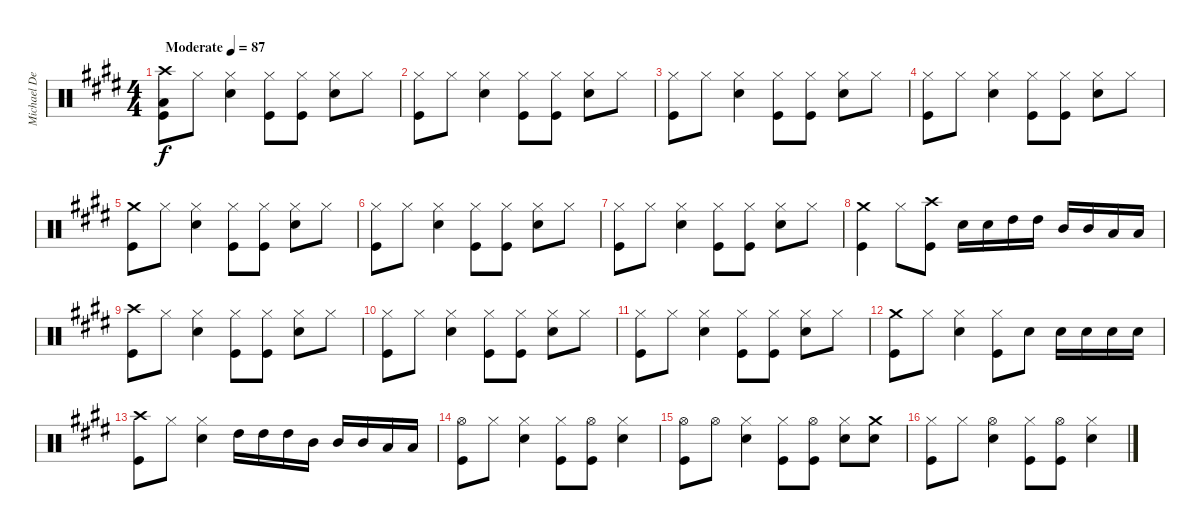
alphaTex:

\track ("Michael Derosier Drums" "Michael De") {instrument percussion}
\staff {score}
\articulation defaults
\ts (4 4)
\tempo (87 "Moderate")
\clef neutral
\ks e
("Crash high (hit)" "Low Tom (hit)" "Kick (hit)").8{dy f} "Hi-Hat (closed)".8 ("Hi-Hat (closed)" "Snare (hit) 2").4 ("Hi-Hat (closed)" "Kick (hit)").8 ("Hi-Hat (closed)" "Kick (hit)").8 ("Hi-Hat (closed)" "Snare (hit) 2").8 "Hi-Hat (closed)".8 |
("Hi-Hat (closed)" "Kick (hit)").8 "Hi-Hat (closed)".8 ("Hi-Hat (closed)" "Snare (hit) 2").4 ("Hi-Hat (closed)" "Kick (hit)").8 ("Hi-Hat (closed)" "Kick (hit)").8 ("Hi-Hat (closed)" "Snare (hit) 2").8 "Hi-Hat (closed)".8 |
("Hi-Hat (closed)" "Kick (hit)").8 "Hi-Hat (closed)".8 ("Hi-Hat (closed)" "Snare (hit) 2").4 ("Hi-Hat (closed)" "Kick (hit)").8 ("Hi-Hat (closed)" "Kick (hit)").8 ("Hi-Hat (closed)" "Snare (hit) 2").8 "Hi-Hat (closed)".8 |
("Hi-Hat (closed)" "Kick (hit)").8 "Hi-Hat (closed)".8 ("Hi-Hat (closed)" "Snare (hit) 2").4 ("Hi-Hat (closed)" "Kick (hit)").8 ("Hi-Hat (closed)" "Kick (hit)").8 ("Hi-Hat (closed)" "Snare (hit) 2").8 "Hi-Hat (closed)".8 |
("Crash medium (hit)" "Kick (hit)").8 "Hi-Hat (closed)".8 ("Hi-Hat (closed)" "Snare (hit) 2").4 ("Hi-Hat (closed)" "Kick (hit)").8 ("Hi-Hat (closed)" "Kick (hit)").8 ("Hi-Hat (closed)" "Snare (hit) 2").8 "Hi-Hat (closed)".8 |
("Hi-Hat (closed)" "Kick (hit)").8 "Hi-Hat (closed)".8 ("Hi-Hat (closed)" "Snare (hit) 2").4 ("Hi-Hat (closed)" "Kick (hit)").8 ("Hi-Hat (closed)" "Kick (hit)").8 ("Hi-Hat (closed)" "Snare (hit) 2").8 "Hi-Hat (closed)".8 |
("Hi-Hat (closed)" "Kick (hit)").8 "Hi-Hat (closed)".8 ("Hi-Hat (closed)" "Snare (hit) 2").4 ("Hi-Hat (closed)" "Kick (hit)").8 ("Hi-Hat (closed)" "Kick (hit)").8 ("Hi-Hat (closed)" "Snare (hit) 2").8 "Hi-Hat (closed)".8 |
("Crash medium (hit)" "Kick (hit)").4 "Hi-Hat (closed)".8 ("Crash high (hit)" "Kick (hit)").8 "Snare (hit) 2".16 "Snare (hit) 2".16 "High Tom (hit)".16 "High Tom (hit)".16 "Mid Tom (hit)".16 "Mid Tom (hit)".16 "Low Tom (hit)".16 "Low Tom (hit)".16 |
("Crash high (hit)" "Kick (hit)").8 "Hi-Hat (closed)".8 ("Hi-Hat (closed)" "Snare (hit) 2").4 ("Hi-Hat (closed)" "Kick (hit)").8 ("Hi-Hat (closed)" "Kick (hit)").8 ("Hi-Hat (closed)" "Snare (hit) 2").8 "Hi-Hat (closed)".8 |
("Hi-Hat (closed)" "Kick (hit)").8 "Hi-Hat (closed)".8 ("Hi-Hat (closed)" "Snare (hit) 2").4 ("Hi-Hat (closed)" "Kick (hit)").8 ("Hi-Hat (closed)" "Kick (hit)").8 ("Hi-Hat (closed)" "Snare (hit) 2").8 "Hi-Hat (closed)".8 |
("Hi-Hat (closed)" "Kick (hit)").8 "Hi-Hat (closed)".8 ("Hi-Hat (closed)" "Snare (hit) 2").4 ("Hi-Hat (closed)" "Kick (hit)").8 ("Hi-Hat (closed)" "Kick (hit)").8 ("Hi-Hat (closed)" "Snare (hit) 2").8 "Hi-Hat (closed)".8 |
("Crash medium (hit)" "Kick (hit)").8 "Hi-Hat (closed)".8 ("Hi-Hat (closed)" "Snare (hit) 2").4 ("Hi-Hat (closed)" "Kick (hit)").8 "Snare (hit) 2".8 "Snare (hit) 2".16 "Snare (hit) 2".16 "Snare (hit) 2".16 "Snare (hit) 2".16 |
("Crash high (hit)" "Kick (hit)").8 "Hi-Hat (closed)".8 ("Hi-Hat (closed)" "Snare (hit) 2").4 "High Tom (hit)".16 "High Tom (hit)".16 "High Tom (hit)".16 "Mid Tom (hit)".16 "Mid Tom (hit)".16 "Mid Tom (hit)".16 "Low Tom (hit)".16 "Low Tom (hit)".16 |
("Hi-Hat (open)" "Kick (hit)").8 "Hi-Hat (closed)".8 ("Hi-Hat (closed)" "Snare (hit) 2").4 ("Hi-Hat (closed)" "Kick (hit)").8 ("Hi-Hat (open)" "Kick (hit)").8 ("Hi-Hat (closed)" "Snare (hit) 2").4 |
("Hi-Hat (open)" "Kick (hit)").8 "Hi-Hat (open)".8 ("Hi-Hat (closed)" "Snare (hit) 2").4 ("Hi-Hat (closed)" "Kick (hit)").8 ("Hi-Hat (open)" "Kick (hit)").8 ("Hi-Hat (closed)" "Snare (hit) 2").8 ("Crash medium (hit)" "Snare (hit) 2").8 |
("Hi-Hat (closed)" "Kick (hit)").8 "Hi-Hat (closed)".8 ("Hi-Hat (open)" "Snare (hit) 2").4 ("Hi-Hat (closed)" "Kick (hit)").8 ("Hi-Hat (open)" "Kick (hit)").8 ("Hi-Hat (closed)" "Snare (hit) 2").4
